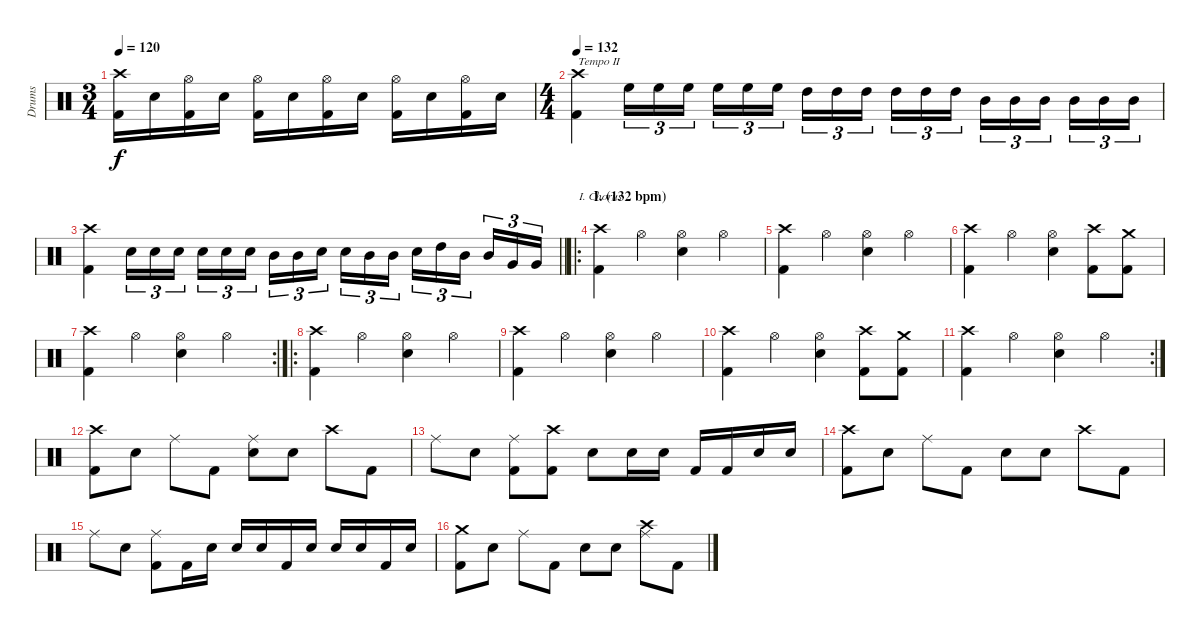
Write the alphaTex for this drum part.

\track ("Drums" "Drums") {instrument percussion}
\staff {score}
\articulation defaults
\chord ("I. Chorus")
\ts (3 4)
\tempo 120
\clef neutral
\ks c
("Crash high (hit)" "Kick (hit) 2").16{dy f} "Snare (hit) 2".16 ("Hi-Hat (open)" "Kick (hit) 2").16 "Snare (hit) 2".16 ("Hi-Hat (open)" "Kick (hit) 2").16 "Snare (hit) 2".16 ("Hi-Hat (open)" "Kick (hit) 2").16 "Snare (hit) 2".16 ("Hi-Hat (open)" "Kick (hit) 2").16 "Snare (hit) 2".16 ("Hi-Hat (open)" "Kick (hit) 2").16 "Snare (hit) 2".16 |
\ts (4 4)
\tempo 135
\tempo 132
("Crash high (hit)" "Kick (hit) 2").4{txt "Tempo II"} "High Floor Tom (hit)".16{tu (3 2)} "High Floor Tom (hit)".16{tu (3 2)} "High Floor Tom (hit)".16{tu (3 2)} "High Floor Tom (hit)".16{tu (3 2)} "High Floor Tom (hit)".16{tu (3 2)} "High Floor Tom (hit)".16{tu (3 2)} "High Tom (hit)".16{tu (3 2)} "High Tom (hit)".16{tu (3 2)} "High Tom (hit)".16{tu (3 2)} "High Tom (hit)".16{tu (3 2)} "High Tom (hit)".16{tu (3 2)} "High Tom (hit)".16{tu (3 2)} "Mid Tom (hit)".16{tu (3 2)} "Mid Tom (hit)".16{tu (3 2)} "Mid Tom (hit)".16{tu (3 2)} "Mid Tom (hit)".16{tu (3 2)} "Mid Tom (hit)".16{tu (3 2)} "Mid Tom (hit)".16{tu (3 2)} |
\barLineRight lightlight
("Crash high (hit)" "Kick (hit) 2").4 "Snare (hit) 2".16{tu (3 2)} "Snare (hit) 2".16{tu (3 2)} "Snare (hit) 2".16{tu (3 2)} "Snare (hit) 2".16{tu (3 2)} "Snare (hit) 2".16{tu (3 2)} "Snare (hit) 2".16{tu (3 2)} "Mid Tom (hit)".16{tu (3 2)} "Mid Tom (hit)".16{tu (3 2)} "Snare (hit) 2".16{tu (3 2)} "Snare (hit) 2".16{tu (3 2)} "Mid Tom (hit)".16{tu (3 2)} "Mid Tom (hit)".16{tu (3 2)} "Snare (hit) 2".16{tu (3 2)} "High Tom (hit)".16{tu (3 2)} "Mid Tom (hit)".16{tu (3 2)} "Mid Tom (hit)".16{tu (3 2)} "Very Low Tom (hit)".16{tu (3 2)} "Very Low Tom (hit)".16{tu (3 2)} |
\ro
\section ("" "I. (132 bpm)")
("Crash high (hit)" "Kick (hit) 2").4{ch "I. Chorus"} "Hi-Hat (open)".4 ("Hi-Hat (open)" "Snare (hit) 2").4 "Hi-Hat (open)".4 |
("Crash high (hit)" "Kick (hit) 2").4 "Hi-Hat (open)".4 ("Hi-Hat (open)" "Snare (hit) 2").4 "Hi-Hat (open)".4 |
("Crash high (hit)" "Kick (hit) 2").4 "Hi-Hat (open)".4 ("Hi-Hat (open)" "Snare (hit) 2").4 ("Crash high (hit)" "Kick (hit) 2").8 ("Crash medium (hit)" "Kick (hit) 2").8 |
\rc 2
("Crash high (hit)" "Kick (hit) 2").4 "Hi-Hat (open)".4 ("Hi-Hat (open)" "Snare (hit) 2").4 "Hi-Hat (open)".4 |
\ro
("Crash high (hit)" "Kick (hit) 2").4 "Hi-Hat (open)".4 ("Hi-Hat (open)" "Snare (hit) 2").4 "Hi-Hat (open)".4 |
("Crash high (hit)" "Kick (hit) 2").4 "Hi-Hat (open)".4 ("Hi-Hat (open)" "Snare (hit) 2").4 "Hi-Hat (open)".4 |
("Crash high (hit)" "Kick (hit) 2").4 "Hi-Hat (open)".4 ("Hi-Hat (open)" "Snare (hit) 2").4 ("Crash high (hit)" "Kick (hit) 2").8 ("Crash medium (hit)" "Kick (hit) 2").8 |
\rc 2
("Crash high (hit)" "Kick (hit) 2").4 "Hi-Hat (open)".4 ("Hi-Hat (open)" "Snare (hit) 2").4 "Hi-Hat (open)".4 |
("Crash high (hit)" "Kick (hit) 2").8 "Snare (hit) 2".8 "Ride (middle)".8 "Kick (hit) 2".8 ("Ride (middle)" "Snare (hit) 2").8 "Snare (hit) 2".8 "Crash high (hit)".8 "Kick (hit) 2".8 |
"Ride (middle)".8 "Snare (hit) 2".8 ("Ride (middle)" "Kick (hit) 2").8 ("Crash high (hit)" "Kick (hit) 2").8 "Snare (hit) 2".8 "Snare (hit) 2".16 "Snare (hit) 2".16 "Kick (hit) 2".16 "Kick (hit) 2".16 "Snare (hit) 2".16 "Snare (hit) 2".16 |
("Crash high (hit)" "Kick (hit) 2").8 "Snare (hit) 2".8 "Ride (middle)".8 "Kick (hit) 2".8 "Snare (hit) 2".8 "Snare (hit) 2".8 "Crash high (hit)".8 "Kick (hit) 2".8 |
"Ride (middle)".8 "Snare (hit) 2".8 ("Ride (middle)" "Kick (hit) 2").8 "Kick (hit) 2".16 "Snare (hit) 2".16 "Snare (hit) 2".16 "Snare (hit) 2".16 "Kick (hit) 2".16 "Snare (hit) 2".16 "Snare (hit) 2".16 "Snare (hit) 2".16 "Kick (hit) 2".16 "Snare (hit) 2".16 |
("Crash medium (hit)" "Kick (hit) 2").8 "Snare (hit) 2".8 "Ride (middle)".8 "Kick (hit) 2".8 "Snare (hit) 2".8 "Snare (hit) 2".8 ("Crash high (hit)" "Ride (middle)").8 "Kick (hit) 2".8
